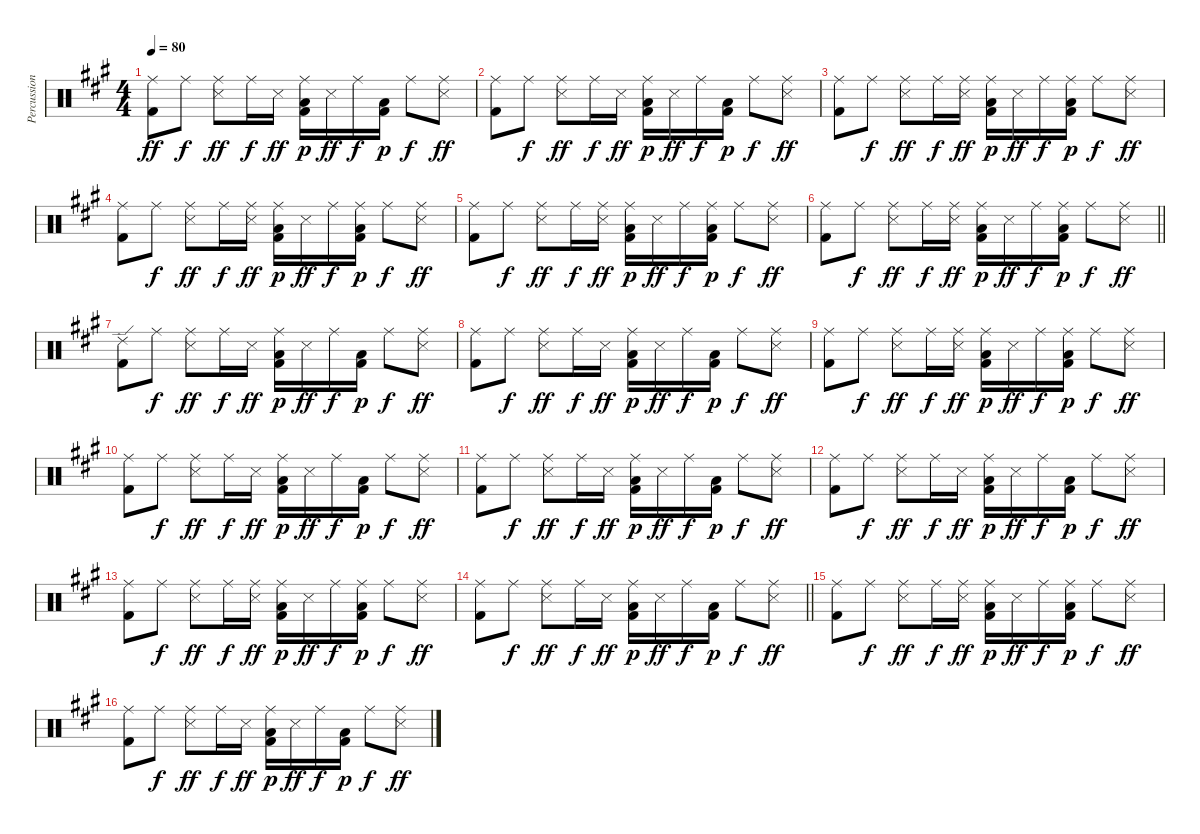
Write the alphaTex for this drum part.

\track ("Percussion" "Percussion") {instrument percussion}
\staff {score}
\articulation defaults
\ts (4 4)
\tempo 80
\clef neutral
\ks a
("Ride (middle)" "Kick (hit) 2").8{dy ff} "Ride (middle)".8{dy f} ("Ride (middle)" "Snare (side stick) 3").8{dy ff} "Ride (middle)".16{dy f} "Snare (side stick) 3".16{dy ff} ("Ride (middle)" "Kick (hit) 2" "Low Floor Tom (hit)").16{dy p} "Snare (side stick) 3".16{dy ff} "Ride (middle)".16{dy f} ("Kick (hit) 2" "Low Floor Tom (hit)").16{dy p} "Ride (middle)".8{dy f} ("Ride (middle)" "Snare (side stick) 3").8{dy ff} |
("Ride (middle)" "Kick (hit) 2").8 "Ride (middle)".8{dy f} ("Ride (middle)" "Snare (side stick) 3").8{dy ff} "Ride (middle)".16{dy f} "Snare (side stick) 3".16{dy ff} ("Ride (middle)" "Kick (hit) 2" "Low Floor Tom (hit)").16{dy p} "Snare (side stick) 3".16{dy ff} "Ride (middle)".16{dy f} ("Kick (hit) 2" "Low Floor Tom (hit)").16{dy p} "Ride (middle)".8{dy f} ("Ride (middle)" "Snare (side stick) 3").8{dy ff} |
("Ride (middle)" "Kick (hit) 2").8 "Ride (middle)".8{dy f} ("Ride (middle)" "Snare (side stick) 3").8{dy ff} "Ride (middle)".16{dy f} ("Ride (middle)" "Snare (side stick) 3").16{dy ff} ("Ride (middle)" "Kick (hit) 2" "Low Floor Tom (hit)").16{dy p} "Snare (side stick) 3".16{dy ff} "Ride (middle)".16{dy f} ("Ride (middle)" "Kick (hit) 2" "Low Floor Tom (hit)").16{dy p} "Ride (middle)".8{dy f} ("Ride (middle)" "Snare (side stick) 3").8{dy ff} |
("Ride (middle)" "Kick (hit) 2").8 "Ride (middle)".8{dy f} ("Ride (middle)" "Snare (side stick) 3").8{dy ff} "Ride (middle)".16{dy f} ("Ride (middle)" "Snare (side stick) 3").16{dy ff} ("Ride (middle)" "Kick (hit) 2" "Low Floor Tom (hit)").16{dy p} "Snare (side stick) 3".16{dy ff} "Ride (middle)".16{dy f} ("Ride (middle)" "Kick (hit) 2" "Low Floor Tom (hit)").16{dy p} "Ride (middle)".8{dy f} ("Ride (middle)" "Snare (side stick) 3").8{dy ff} |
("Ride (middle)" "Kick (hit) 2").8 "Ride (middle)".8{dy f} ("Ride (middle)" "Snare (side stick) 3").8{dy ff} "Ride (middle)".16{dy f} ("Ride (middle)" "Snare (side stick) 3").16{dy ff} ("Ride (middle)" "Kick (hit) 2" "Low Floor Tom (hit)").16{dy p} "Snare (side stick) 3".16{dy ff} "Ride (middle)".16{dy f} ("Ride (middle)" "Kick (hit) 2" "Low Floor Tom (hit)").16{dy p} "Ride (middle)".8{dy f} ("Ride (middle)" "Snare (side stick) 3").8{dy ff} |
\barLineRight lightlight
("Ride (middle)" "Kick (hit) 2").8 "Ride (middle)".8{dy f} ("Ride (middle)" "Snare (side stick) 3").8{dy ff} "Ride (middle)".16{dy f} ("Ride (middle)" "Snare (side stick) 3").16{dy ff} ("Ride (middle)" "Kick (hit) 2" "Low Floor Tom (hit)").16{dy p} "Snare (side stick) 3".16{dy ff} "Ride (middle)".16{dy f} ("Ride (middle)" "Kick (hit) 2" "Low Floor Tom (hit)").16{dy p} "Ride (middle)".8{dy f} ("Ride (middle)" "Snare (side stick) 3").8{dy ff} |
("Ride (edge) 2" "Kick (hit) 2").8 "Ride (middle)".8{dy f} ("Ride (middle)" "Snare (side stick) 3").8{dy ff} "Ride (middle)".16{dy f} "Snare (side stick) 3".16{dy ff} ("Ride (middle)" "Kick (hit) 2" "Low Floor Tom (hit)").16{dy p} "Snare (side stick) 3".16{dy ff} "Ride (middle)".16{dy f} ("Kick (hit) 2" "Low Floor Tom (hit)").16{dy p} "Ride (middle)".8{dy f} ("Ride (middle)" "Snare (side stick) 3").8{dy ff} |
("Ride (middle)" "Kick (hit) 2").8 "Ride (middle)".8{dy f} ("Ride (middle)" "Snare (side stick) 3").8{dy ff} "Ride (middle)".16{dy f} "Snare (side stick) 3".16{dy ff} ("Ride (middle)" "Kick (hit) 2" "Low Floor Tom (hit)").16{dy p} "Snare (side stick) 3".16{dy ff} "Ride (middle)".16{dy f} ("Kick (hit) 2" "Low Floor Tom (hit)").16{dy p} "Ride (middle)".8{dy f} ("Ride (middle)" "Snare (side stick) 3").8{dy ff} |
("Ride (middle)" "Kick (hit) 2").8 "Ride (middle)".8{dy f} ("Ride (middle)" "Snare (side stick) 3").8{dy ff} "Ride (middle)".16{dy f} ("Ride (middle)" "Snare (side stick) 3").16{dy ff} ("Ride (middle)" "Kick (hit) 2" "Low Floor Tom (hit)").16{dy p} "Snare (side stick) 3".16{dy ff} "Ride (middle)".16{dy f} ("Ride (middle)" "Kick (hit) 2" "Low Floor Tom (hit)").16{dy p} "Ride (middle)".8{dy f} ("Ride (middle)" "Snare (side stick) 3").8{dy ff} |
("Ride (middle)" "Kick (hit) 2").8 "Ride (middle)".8{dy f} ("Ride (middle)" "Snare (side stick) 3").8{dy ff} "Ride (middle)".16{dy f} "Snare (side stick) 3".16{dy ff} ("Ride (middle)" "Kick (hit) 2" "Low Floor Tom (hit)").16{dy p} "Snare (side stick) 3".16{dy ff} "Ride (middle)".16{dy f} ("Kick (hit) 2" "Low Floor Tom (hit)").16{dy p} "Ride (middle)".8{dy f} ("Ride (middle)" "Snare (side stick) 3").8{dy ff} |
("Ride (middle)" "Kick (hit) 2").8 "Ride (middle)".8{dy f} ("Ride (middle)" "Snare (side stick) 3").8{dy ff} "Ride (middle)".16{dy f} "Snare (side stick) 3".16{dy ff} ("Ride (middle)" "Kick (hit) 2" "Low Floor Tom (hit)").16{dy p} "Snare (side stick) 3".16{dy ff} "Ride (middle)".16{dy f} ("Kick (hit) 2" "Low Floor Tom (hit)").16{dy p} "Ride (middle)".8{dy f} ("Ride (middle)" "Snare (side stick) 3").8{dy ff} |
("Ride (middle)" "Kick (hit) 2").8 "Ride (middle)".8{dy f} ("Ride (middle)" "Snare (side stick) 3").8{dy ff} "Ride (middle)".16{dy f} "Snare (side stick) 3".16{dy ff} ("Ride (middle)" "Kick (hit) 2" "Low Floor Tom (hit)").16{dy p} "Snare (side stick) 3".16{dy ff} "Ride (middle)".16{dy f} ("Kick (hit) 2" "Low Floor Tom (hit)").16{dy p} "Ride (middle)".8{dy f} ("Ride (middle)" "Snare (side stick) 3").8{dy ff} |
("Ride (middle)" "Kick (hit) 2").8 "Ride (middle)".8{dy f} ("Ride (middle)" "Snare (side stick) 3").8{dy ff} "Ride (middle)".16{dy f} ("Ride (middle)" "Snare (side stick) 3").16{dy ff} ("Ride (middle)" "Kick (hit) 2" "Low Floor Tom (hit)").16{dy p} "Snare (side stick) 3".16{dy ff} "Ride (middle)".16{dy f} ("Ride (middle)" "Kick (hit) 2" "Low Floor Tom (hit)").16{dy p} "Ride (middle)".8{dy f} ("Ride (middle)" "Snare (side stick) 3").8{dy ff} |
\barLineRight lightlight
("Ride (middle)" "Kick (hit) 2").8 "Ride (middle)".8{dy f} ("Ride (middle)" "Snare (side stick) 3").8{dy ff} "Ride (middle)".16{dy f} "Snare (side stick) 3".16{dy ff} ("Ride (middle)" "Kick (hit) 2" "Low Floor Tom (hit)").16{dy p} "Snare (side stick) 3".16{dy ff} "Ride (middle)".16{dy f} ("Kick (hit) 2" "Low Floor Tom (hit)").16{dy p} "Ride (middle)".8{dy f} ("Ride (middle)" "Snare (side stick) 3").8{dy ff} |
("Ride (middle)" "Kick (hit) 2").8 "Ride (middle)".8{dy f} ("Ride (middle)" "Snare (side stick) 3").8{dy ff} "Ride (middle)".16{dy f} ("Ride (middle)" "Snare (side stick) 3").16{dy ff} ("Ride (middle)" "Kick (hit) 2" "Low Floor Tom (hit)").16{dy p} "Snare (side stick) 3".16{dy ff} "Ride (middle)".16{dy f} ("Ride (middle)" "Kick (hit) 2" "Low Floor Tom (hit)").16{dy p} "Ride (middle)".8{dy f} ("Ride (middle)" "Snare (side stick) 3").8{dy ff} |
("Ride (middle)" "Kick (hit) 2").8 "Ride (middle)".8{dy f} ("Ride (middle)" "Snare (side stick) 3").8{dy ff} "Ride (middle)".16{dy f} "Snare (side stick) 3".16{dy ff} ("Ride (middle)" "Kick (hit) 2" "Low Floor Tom (hit)").16{dy p} "Snare (side stick) 3".16{dy ff} "Ride (middle)".16{dy f} ("Kick (hit) 2" "Low Floor Tom (hit)").16{dy p} "Ride (middle)".8{dy f} ("Ride (middle)" "Snare (side stick) 3").8{dy ff}
